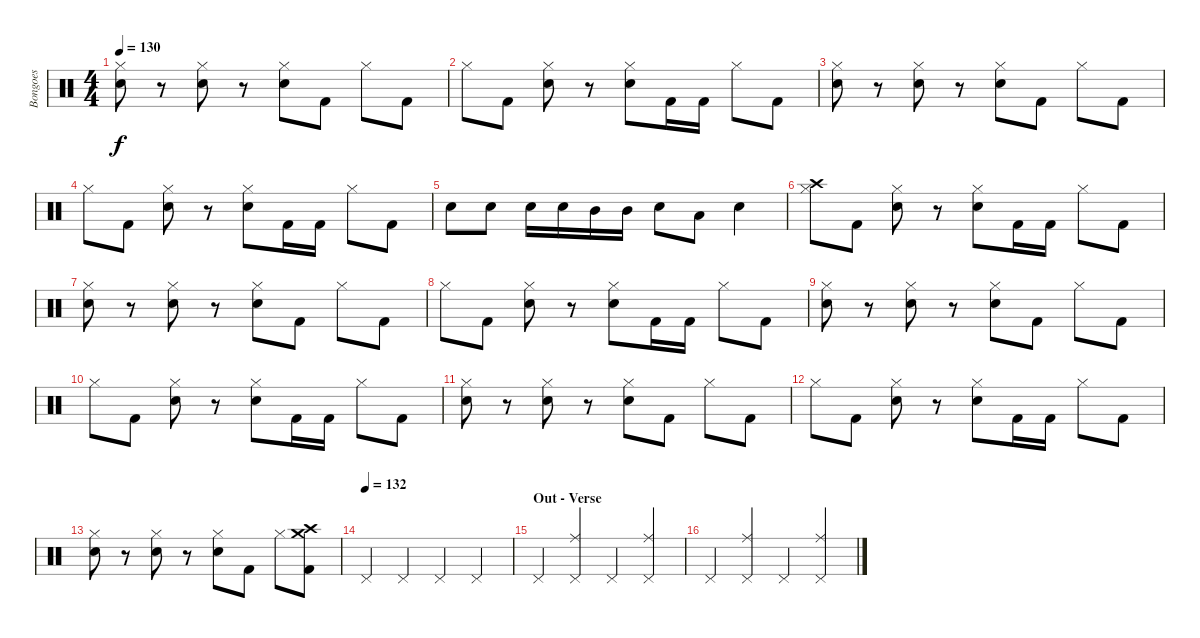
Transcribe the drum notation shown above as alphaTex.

\track ("Bongoes" "Bongoes") {instrument percussion}
\staff {score}
\articulation defaults
\ts (4 4)
\tempo 130
\clef neutral
\ks c
("Hi-Hat (closed)" "Snare (hit) 2").8{dy f} r.8 ("Hi-Hat (closed)" "Snare (hit) 2").8 r.8 ("Hi-Hat (closed)" "Snare (hit) 2").8 "Kick (hit) 2".8 "Hi-Hat (closed)".8 "Kick (hit) 2".8 |
"Hi-Hat (closed)".8 "Kick (hit) 2".8 ("Hi-Hat (closed)" "Snare (hit) 2").8 r.8 ("Hi-Hat (closed)" "Snare (hit) 2").8 "Kick (hit) 2".16 "Kick (hit) 2".16 "Hi-Hat (closed)".8 "Kick (hit) 2".8 |
("Hi-Hat (closed)" "Snare (hit) 2").8 r.8 ("Hi-Hat (closed)" "Snare (hit) 2").8 r.8 ("Hi-Hat (closed)" "Snare (hit) 2").8 "Kick (hit) 2".8 "Hi-Hat (closed)".8 "Kick (hit) 2".8 |
"Hi-Hat (closed)".8 "Kick (hit) 2".8 ("Hi-Hat (closed)" "Snare (hit) 2").8 r.8 ("Hi-Hat (closed)" "Snare (hit) 2").8 "Kick (hit) 2".16 "Kick (hit) 2".16 "Hi-Hat (closed)".8 "Kick (hit) 2".8 |
"Snare (hit) 2".8 "Snare (hit) 2".8 "Snare (hit) 2".16 "Snare (hit) 2".16 "Mid Tom (hit)".16 "Mid Tom (hit)".16 "Snare (hit) 2".8 "Low Tom (hit)".8 "Snare (hit) 2".4 |
("Hi-Hat (closed)" "Crash high (hit)").8 "Kick (hit) 2".8 ("Hi-Hat (closed)" "Snare (hit) 2").8 r.8 ("Hi-Hat (closed)" "Snare (hit) 2").8 "Kick (hit) 2".16 "Kick (hit) 2".16 "Hi-Hat (closed)".8 "Kick (hit) 2".8 |
("Hi-Hat (closed)" "Snare (hit) 2").8 r.8 ("Hi-Hat (closed)" "Snare (hit) 2").8 r.8 ("Hi-Hat (closed)" "Snare (hit) 2").8 "Kick (hit) 2".8 "Hi-Hat (closed)".8 "Kick (hit) 2".8 |
"Hi-Hat (closed)".8 "Kick (hit) 2".8 ("Hi-Hat (closed)" "Snare (hit) 2").8 r.8 ("Hi-Hat (closed)" "Snare (hit) 2").8 "Kick (hit) 2".16 "Kick (hit) 2".16 "Hi-Hat (closed)".8 "Kick (hit) 2".8 |
("Hi-Hat (closed)" "Snare (hit) 2").8 r.8 ("Hi-Hat (closed)" "Snare (hit) 2").8 r.8 ("Hi-Hat (closed)" "Snare (hit) 2").8 "Kick (hit) 2".8 "Hi-Hat (closed)".8 "Kick (hit) 2".8 |
"Hi-Hat (closed)".8 "Kick (hit) 2".8 ("Hi-Hat (closed)" "Snare (hit) 2").8 r.8 ("Hi-Hat (closed)" "Snare (hit) 2").8 "Kick (hit) 2".16 "Kick (hit) 2".16 "Hi-Hat (closed)".8 "Kick (hit) 2".8 |
("Hi-Hat (closed)" "Snare (hit) 2").8 r.8 ("Hi-Hat (closed)" "Snare (hit) 2").8 r.8 ("Hi-Hat (closed)" "Snare (hit) 2").8 "Kick (hit) 2".8 "Hi-Hat (closed)".8 "Kick (hit) 2".8 |
"Hi-Hat (closed)".8 "Kick (hit) 2".8 ("Hi-Hat (closed)" "Snare (hit) 2").8 r.8 ("Hi-Hat (closed)" "Snare (hit) 2").8 "Kick (hit) 2".16 "Kick (hit) 2".16 "Hi-Hat (closed)".8 "Kick (hit) 2".8 |
("Hi-Hat (closed)" "Snare (hit) 2").8 r.8 ("Hi-Hat (closed)" "Snare (hit) 2").8 r.8 ("Hi-Hat (closed)" "Snare (hit) 2").8 "Kick (hit) 2".8 "Hi-Hat (closed)".8 ("Kick (hit) 2" "Crash medium (hit)" "Crash high (hit)").8 |
\tempo (132)
"Pedal Hi-Hat (hit)".4 "Pedal Hi-Hat (hit)".4 "Pedal Hi-Hat (hit)".4 "Pedal Hi-Hat (hit)".4 |
\section ("" "Out - Verse")
"Pedal Hi-Hat (hit)".4 ("Pedal Hi-Hat (hit)" "Ride (middle)").4 "Pedal Hi-Hat (hit)".4 ("Pedal Hi-Hat (hit)" "Ride (middle)").4 |
"Pedal Hi-Hat (hit)".4 ("Pedal Hi-Hat (hit)" "Ride (middle)").4 "Pedal Hi-Hat (hit)".4 ("Pedal Hi-Hat (hit)" "Ride (middle)").4
